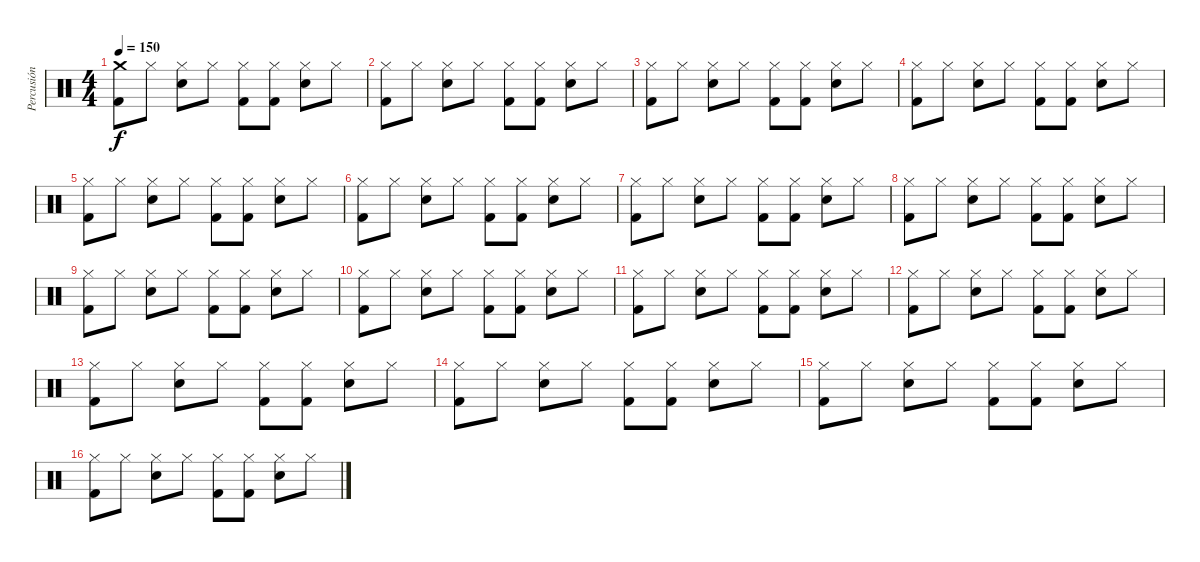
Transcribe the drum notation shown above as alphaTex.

\track ("Percusión" "Percusión") {instrument percussion}
\staff {score}
\articulation defaults
\ts (4 4)
\tempo 150
\clef neutral
\ks c
("Crash medium (hit)" "Kick (hit) 2").8{dy f} "Hi-Hat (closed)".8 ("Hi-Hat (closed)" "Snare (hit) 2").8 "Hi-Hat (closed)".8 ("Hi-Hat (closed)" "Kick (hit) 2").8 ("Hi-Hat (closed)" "Kick (hit) 2").8 ("Hi-Hat (closed)" "Snare (hit) 2").8 "Hi-Hat (closed)".8 |
("Hi-Hat (closed)" "Kick (hit) 2").8 "Hi-Hat (closed)".8 ("Hi-Hat (closed)" "Snare (hit) 2").8 "Hi-Hat (closed)".8 ("Hi-Hat (closed)" "Kick (hit) 2").8 ("Hi-Hat (closed)" "Kick (hit) 2").8 ("Hi-Hat (closed)" "Snare (hit) 2").8 "Hi-Hat (closed)".8 |
("Hi-Hat (closed)" "Kick (hit) 2").8 "Hi-Hat (closed)".8 ("Hi-Hat (closed)" "Snare (hit) 2").8 "Hi-Hat (closed)".8 ("Hi-Hat (closed)" "Kick (hit) 2").8 ("Hi-Hat (closed)" "Kick (hit) 2").8 ("Hi-Hat (closed)" "Snare (hit) 2").8 "Hi-Hat (closed)".8 |
("Hi-Hat (closed)" "Kick (hit) 2").8 "Hi-Hat (closed)".8 ("Hi-Hat (closed)" "Snare (hit) 2").8 "Hi-Hat (closed)".8 ("Hi-Hat (closed)" "Kick (hit) 2").8 ("Hi-Hat (closed)" "Kick (hit) 2").8 ("Hi-Hat (closed)" "Snare (hit) 2").8 "Hi-Hat (closed)".8 |
("Hi-Hat (closed)" "Kick (hit) 2").8 "Hi-Hat (closed)".8 ("Hi-Hat (closed)" "Snare (hit) 2").8 "Hi-Hat (closed)".8 ("Hi-Hat (closed)" "Kick (hit) 2").8 ("Hi-Hat (closed)" "Kick (hit) 2").8 ("Hi-Hat (closed)" "Snare (hit) 2").8 "Hi-Hat (closed)".8 |
("Hi-Hat (closed)" "Kick (hit) 2").8 "Hi-Hat (closed)".8 ("Hi-Hat (closed)" "Snare (hit) 2").8 "Hi-Hat (closed)".8 ("Hi-Hat (closed)" "Kick (hit) 2").8 ("Hi-Hat (closed)" "Kick (hit) 2").8 ("Hi-Hat (closed)" "Snare (hit) 2").8 "Hi-Hat (closed)".8 |
("Hi-Hat (closed)" "Kick (hit) 2").8 "Hi-Hat (closed)".8 ("Hi-Hat (closed)" "Snare (hit) 2").8 "Hi-Hat (closed)".8 ("Hi-Hat (closed)" "Kick (hit) 2").8 ("Hi-Hat (closed)" "Kick (hit) 2").8 ("Hi-Hat (closed)" "Snare (hit) 2").8 "Hi-Hat (closed)".8 |
("Hi-Hat (closed)" "Kick (hit) 2").8 "Hi-Hat (closed)".8 ("Hi-Hat (closed)" "Snare (hit) 2").8 "Hi-Hat (closed)".8 ("Hi-Hat (closed)" "Kick (hit) 2").8 ("Hi-Hat (closed)" "Kick (hit) 2").8 ("Hi-Hat (closed)" "Snare (hit) 2").8 "Hi-Hat (closed)".8 |
("Hi-Hat (closed)" "Kick (hit) 2").8 "Hi-Hat (closed)".8 ("Hi-Hat (closed)" "Snare (hit) 2").8 "Hi-Hat (closed)".8 ("Hi-Hat (closed)" "Kick (hit) 2").8 ("Hi-Hat (closed)" "Kick (hit) 2").8 ("Hi-Hat (closed)" "Snare (hit) 2").8 "Hi-Hat (closed)".8 |
("Hi-Hat (closed)" "Kick (hit) 2").8 "Hi-Hat (closed)".8 ("Hi-Hat (closed)" "Snare (hit) 2").8 "Hi-Hat (closed)".8 ("Hi-Hat (closed)" "Kick (hit) 2").8 ("Hi-Hat (closed)" "Kick (hit) 2").8 ("Hi-Hat (closed)" "Snare (hit) 2").8 "Hi-Hat (closed)".8 |
("Hi-Hat (closed)" "Kick (hit) 2").8 "Hi-Hat (closed)".8 ("Hi-Hat (closed)" "Snare (hit) 2").8 "Hi-Hat (closed)".8 ("Hi-Hat (closed)" "Kick (hit) 2").8 ("Hi-Hat (closed)" "Kick (hit) 2").8 ("Hi-Hat (closed)" "Snare (hit) 2").8 "Hi-Hat (closed)".8 |
("Hi-Hat (closed)" "Kick (hit) 2").8 "Hi-Hat (closed)".8 ("Hi-Hat (closed)" "Snare (hit) 2").8 "Hi-Hat (closed)".8 ("Hi-Hat (closed)" "Kick (hit) 2").8 ("Hi-Hat (closed)" "Kick (hit) 2").8 ("Hi-Hat (closed)" "Snare (hit) 2").8 "Hi-Hat (closed)".8 |
("Hi-Hat (closed)" "Kick (hit) 2").8 "Hi-Hat (closed)".8 ("Hi-Hat (closed)" "Snare (hit) 2").8 "Hi-Hat (closed)".8 ("Hi-Hat (closed)" "Kick (hit) 2").8 ("Hi-Hat (closed)" "Kick (hit) 2").8 ("Hi-Hat (closed)" "Snare (hit) 2").8 "Hi-Hat (closed)".8 |
("Hi-Hat (closed)" "Kick (hit) 2").8 "Hi-Hat (closed)".8 ("Hi-Hat (closed)" "Snare (hit) 2").8 "Hi-Hat (closed)".8 ("Hi-Hat (closed)" "Kick (hit) 2").8 ("Hi-Hat (closed)" "Kick (hit) 2").8 ("Hi-Hat (closed)" "Snare (hit) 2").8 "Hi-Hat (closed)".8 |
("Hi-Hat (closed)" "Kick (hit) 2").8 "Hi-Hat (closed)".8 ("Hi-Hat (closed)" "Snare (hit) 2").8 "Hi-Hat (closed)".8 ("Hi-Hat (closed)" "Kick (hit) 2").8 ("Hi-Hat (closed)" "Kick (hit) 2").8 ("Hi-Hat (closed)" "Snare (hit) 2").8 "Hi-Hat (closed)".8 |
("Hi-Hat (closed)" "Kick (hit) 2").8 "Hi-Hat (closed)".8 ("Hi-Hat (closed)" "Snare (hit) 2").8 "Hi-Hat (closed)".8 ("Hi-Hat (closed)" "Kick (hit) 2").8 ("Hi-Hat (closed)" "Kick (hit) 2").8 ("Hi-Hat (closed)" "Snare (hit) 2").8 "Hi-Hat (closed)".8
